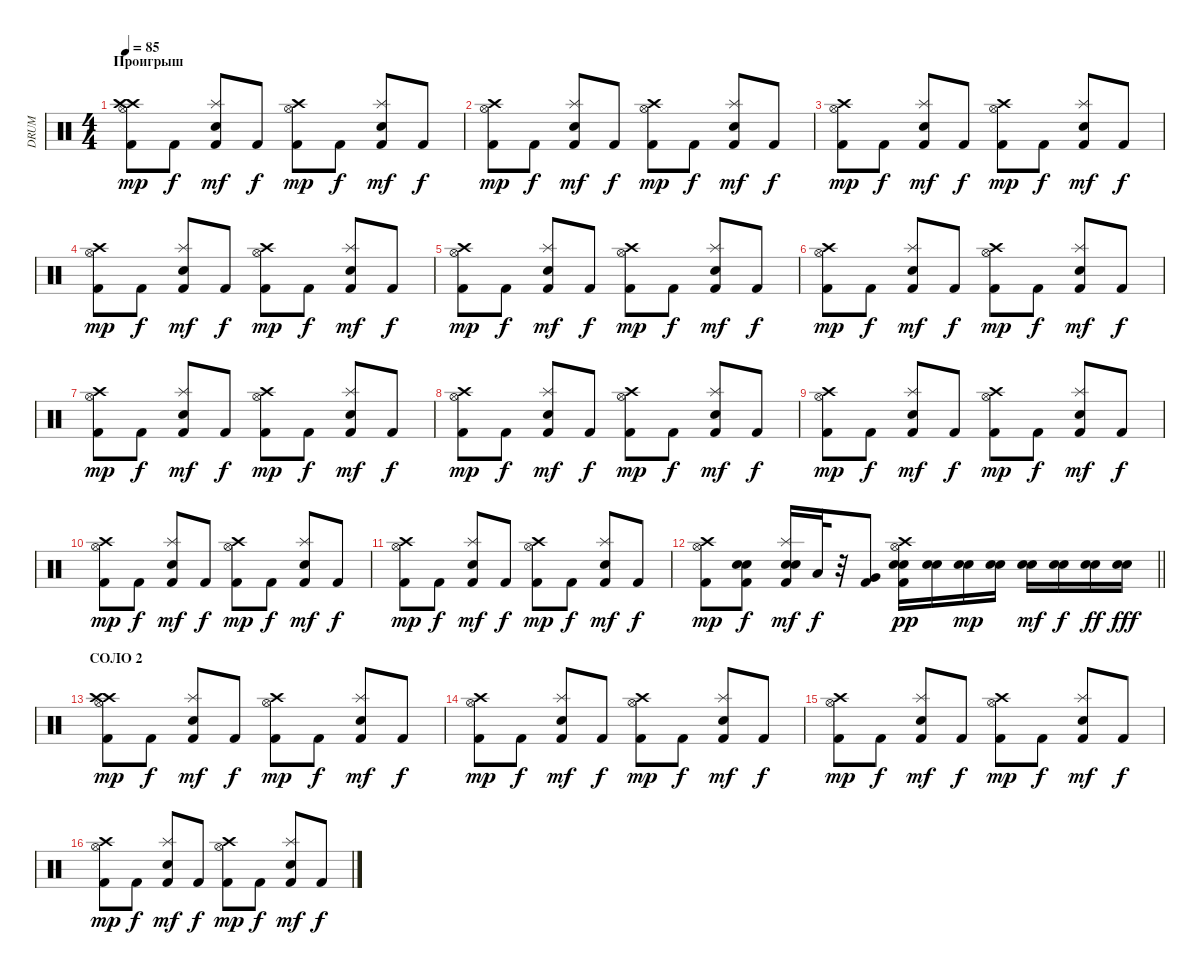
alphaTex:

\track ("DRUM" "DRUM") {instrument percussion}
\staff {score}
\articulation defaults
\ts (4 4)
\section ("" "Проигрыш")
\tempo 85
\clef neutral
\ks c
("Crash high (hit)" "Hi-Hat (open)" "Crash high (hit)" "Kick (hit) 2").8{dy mp} "Kick (hit) 2".8{dy f} ("Splash (hit)" "Electric Snare (hit)" "Kick (hit) 2").8{dy mf} "Kick (hit) 2".8{dy f} ("Hi-Hat (open)" "Crash high (hit)" "Kick (hit) 2").8{dy mp} "Kick (hit) 2".8{dy f} ("Splash (hit)" "Electric Snare (hit)" "Kick (hit) 2").8{dy mf} "Kick (hit) 2".8{dy f} |
("Hi-Hat (open)" "Crash high (hit)" "Kick (hit) 2").8{dy mp} "Kick (hit) 2".8{dy f} ("Splash (hit)" "Electric Snare (hit)" "Kick (hit) 2").8{dy mf} "Kick (hit) 2".8{dy f} ("Hi-Hat (open)" "Crash high (hit)" "Kick (hit) 2").8{dy mp} "Kick (hit) 2".8{dy f} ("Splash (hit)" "Electric Snare (hit)" "Kick (hit) 2").8{dy mf} "Kick (hit) 2".8{dy f} |
("Hi-Hat (open)" "Crash high (hit)" "Kick (hit) 2").8{dy mp} "Kick (hit) 2".8{dy f} ("Splash (hit)" "Electric Snare (hit)" "Kick (hit) 2").8{dy mf} "Kick (hit) 2".8{dy f} ("Hi-Hat (open)" "Crash high (hit)" "Kick (hit) 2").8{dy mp} "Kick (hit) 2".8{dy f} ("Splash (hit)" "Electric Snare (hit)" "Kick (hit) 2").8{dy mf} "Kick (hit) 2".8{dy f} |
("Hi-Hat (open)" "Crash high (hit)" "Kick (hit) 2").8{dy mp} "Kick (hit) 2".8{dy f} ("Splash (hit)" "Electric Snare (hit)" "Kick (hit) 2").8{dy mf} "Kick (hit) 2".8{dy f} ("Hi-Hat (open)" "Crash high (hit)" "Kick (hit) 2").8{dy mp} "Kick (hit) 2".8{dy f} ("Splash (hit)" "Electric Snare (hit)" "Kick (hit) 2").8{dy mf} "Kick (hit) 2".8{dy f} |
("Hi-Hat (open)" "Crash high (hit)" "Kick (hit) 2").8{dy mp} "Kick (hit) 2".8{dy f} ("Splash (hit)" "Electric Snare (hit)" "Kick (hit) 2").8{dy mf} "Kick (hit) 2".8{dy f} ("Hi-Hat (open)" "Crash high (hit)" "Kick (hit) 2").8{dy mp} "Kick (hit) 2".8{dy f} ("Splash (hit)" "Electric Snare (hit)" "Kick (hit) 2").8{dy mf} "Kick (hit) 2".8{dy f} |
("Hi-Hat (open)" "Crash high (hit)" "Kick (hit) 2").8{dy mp} "Kick (hit) 2".8{dy f} ("Splash (hit)" "Electric Snare (hit)" "Kick (hit) 2").8{dy mf} "Kick (hit) 2".8{dy f} ("Hi-Hat (open)" "Crash high (hit)" "Kick (hit) 2").8{dy mp} "Kick (hit) 2".8{dy f} ("Splash (hit)" "Electric Snare (hit)" "Kick (hit) 2").8{dy mf} "Kick (hit) 2".8{dy f} |
("Hi-Hat (open)" "Crash high (hit)" "Kick (hit) 2").8{dy mp} "Kick (hit) 2".8{dy f} ("Splash (hit)" "Electric Snare (hit)" "Kick (hit) 2").8{dy mf} "Kick (hit) 2".8{dy f} ("Hi-Hat (open)" "Crash high (hit)" "Kick (hit) 2").8{dy mp} "Kick (hit) 2".8{dy f} ("Splash (hit)" "Electric Snare (hit)" "Kick (hit) 2").8{dy mf} "Kick (hit) 2".8{dy f} |
("Hi-Hat (open)" "Crash high (hit)" "Kick (hit) 2").8{dy mp} "Kick (hit) 2".8{dy f} ("Splash (hit)" "Electric Snare (hit)" "Kick (hit) 2").8{dy mf} "Kick (hit) 2".8{dy f} ("Hi-Hat (open)" "Crash high (hit)" "Kick (hit) 2").8{dy mp} "Kick (hit) 2".8{dy f} ("Splash (hit)" "Electric Snare (hit)" "Kick (hit) 2").8{dy mf} "Kick (hit) 2".8{dy f} |
("Hi-Hat (open)" "Crash high (hit)" "Kick (hit) 2").8{dy mp} "Kick (hit) 2".8{dy f} ("Splash (hit)" "Electric Snare (hit)" "Kick (hit) 2").8{dy mf} "Kick (hit) 2".8{dy f} ("Hi-Hat (open)" "Crash high (hit)" "Kick (hit) 2").8{dy mp} "Kick (hit) 2".8{dy f} ("Splash (hit)" "Electric Snare (hit)" "Kick (hit) 2").8{dy mf} "Kick (hit) 2".8{dy f} |
("Hi-Hat (open)" "Crash high (hit)" "Kick (hit) 2").8{dy mp} "Kick (hit) 2".8{dy f} ("Splash (hit)" "Electric Snare (hit)" "Kick (hit) 2").8{dy mf} "Kick (hit) 2".8{dy f} ("Hi-Hat (open)" "Crash high (hit)" "Kick (hit) 2").8{dy mp} "Kick (hit) 2".8{dy f} ("Splash (hit)" "Electric Snare (hit)" "Kick (hit) 2").8{dy mf} "Kick (hit) 2".8{dy f} |
("Hi-Hat (open)" "Crash high (hit)" "Kick (hit) 2").8{dy mp} "Kick (hit) 2".8{dy f} ("Splash (hit)" "Electric Snare (hit)" "Kick (hit) 2").8{dy mf} "Kick (hit) 2".8{dy f} ("Hi-Hat (open)" "Crash high (hit)" "Kick (hit) 2").8{dy mp} "Kick (hit) 2".8{dy f} ("Splash (hit)" "Electric Snare (hit)" "Kick (hit) 2").8{dy mf} "Kick (hit) 2".8{dy f} |
\barLineRight lightlight
("Hi-Hat (open)" "Crash high (hit)" "Kick (hit) 2").8{dy mp} ("Kick (hit) 2" "Electric Snare (hit)" "Electric Snare (hit)").8{dy f} ("Electric Snare (hit)" "Kick (hit) 2" "Splash (hit)" "Electric Snare (hit)").16{dy mf} "Low Tom (hit)".32{dy f} r.32 ("Very Low Tom (hit)" "Kick (hit) 2").8 ("Electric Snare (hit)" "Hi-Hat (open)" "Crash high (hit)" "Kick (hit) 2" "Snare (hit) 2").16{dy pp} ("Electric Snare (hit)" "Snare (hit) 2").16 ("Electric Snare (hit)" "Snare (hit) 2").16{dy mp} ("Electric Snare (hit)" "Snare (hit) 2").16 ("Electric Snare (hit)" "Snare (hit) 2").16{dy mf} ("Electric Snare (hit)" "Snare (hit) 2").16{dy f} ("Electric Snare (hit)" "Snare (hit) 2").16{dy ff} ("Electric Snare (hit)" "Snare (hit) 2").16{dy fff} |
\section ("" "СОЛО 2")
("Crash high (hit)" "Hi-Hat (open)" "Crash high (hit)" "Kick (hit) 2").8{dy mp} "Kick (hit) 2".8{dy f} ("Splash (hit)" "Electric Snare (hit)" "Kick (hit) 2").8{dy mf} "Kick (hit) 2".8{dy f} ("Hi-Hat (open)" "Crash high (hit)" "Kick (hit) 2").8{dy mp} "Kick (hit) 2".8{dy f} ("Splash (hit)" "Electric Snare (hit)" "Kick (hit) 2").8{dy mf} "Kick (hit) 2".8{dy f} |
("Hi-Hat (open)" "Crash high (hit)" "Kick (hit) 2").8{dy mp} "Kick (hit) 2".8{dy f} ("Splash (hit)" "Electric Snare (hit)" "Kick (hit) 2").8{dy mf} "Kick (hit) 2".8{dy f} ("Hi-Hat (open)" "Crash high (hit)" "Kick (hit) 2").8{dy mp} "Kick (hit) 2".8{dy f} ("Splash (hit)" "Electric Snare (hit)" "Kick (hit) 2").8{dy mf} "Kick (hit) 2".8{dy f} |
("Hi-Hat (open)" "Crash high (hit)" "Kick (hit) 2").8{dy mp} "Kick (hit) 2".8{dy f} ("Splash (hit)" "Electric Snare (hit)" "Kick (hit) 2").8{dy mf} "Kick (hit) 2".8{dy f} ("Hi-Hat (open)" "Crash high (hit)" "Kick (hit) 2").8{dy mp} "Kick (hit) 2".8{dy f} ("Splash (hit)" "Electric Snare (hit)" "Kick (hit) 2").8{dy mf} "Kick (hit) 2".8{dy f} |
("Hi-Hat (open)" "Crash high (hit)" "Kick (hit) 2").8{dy mp} "Kick (hit) 2".8{dy f} ("Splash (hit)" "Electric Snare (hit)" "Kick (hit) 2").8{dy mf} "Kick (hit) 2".8{dy f} ("Hi-Hat (open)" "Crash high (hit)" "Kick (hit) 2").8{dy mp} "Kick (hit) 2".8{dy f} ("Splash (hit)" "Electric Snare (hit)" "Kick (hit) 2").8{dy mf} "Kick (hit) 2".8{dy f}
